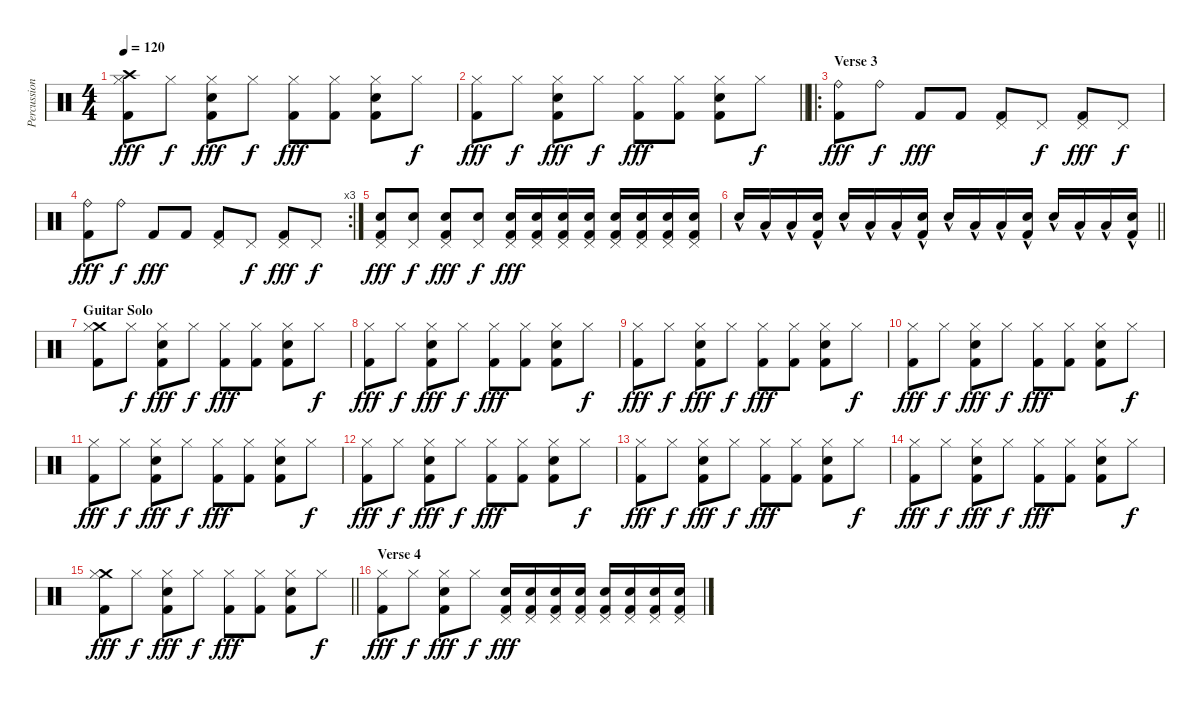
\track ("Percussion: Steve Walchoz" "Percussion") {instrument percussion}
\staff {score}
\articulation defaults
\ts (4 4)
\tempo 120
\clef neutral
\ks c
("Crash high (hit)" "Hi-Hat (closed)" "Kick (hit) 2").8{dy fff} "Hi-Hat (closed)".8{dy f} ("Hi-Hat (closed)" "Snare (hit) 2" "Kick (hit) 2").8{dy fff} "Hi-Hat (closed)".8{dy f} ("Hi-Hat (closed)" "Kick (hit) 2").8{dy fff} ("Hi-Hat (closed)" "Kick (hit) 2").8 ("Hi-Hat (closed)" "Snare (hit) 2" "Kick (hit) 2").8 "Hi-Hat (closed)".8{dy f} |
\barLineRight lightlight
("Hi-Hat (closed)" "Kick (hit) 2").8{dy fff} "Hi-Hat (closed)".8{dy f} ("Hi-Hat (closed)" "Snare (hit) 2" "Kick (hit) 2").8{dy fff} "Hi-Hat (closed)".8{dy f} ("Hi-Hat (closed)" "Kick (hit) 2").8{dy fff} ("Hi-Hat (closed)" "Kick (hit) 2").8 ("Hi-Hat (closed)" "Snare (hit) 2" "Kick (hit) 2").8 "Hi-Hat (closed)".8{dy f} |
\ro
\section ("" "Verse 3")
("Ride (bell)" "Kick (hit) 2").8{dy fff} "Ride (bell)".8{dy f} "Kick (hit) 2".8{dy fff} "Kick (hit) 2".8 ("Pedal Hi-Hat (hit)" "Kick (hit) 2").8 "Pedal Hi-Hat (hit)".8{dy f} ("Pedal Hi-Hat (hit)" "Kick (hit) 2").8{dy fff} "Pedal Hi-Hat (hit)".8{dy f} |
\rc 3
("Ride (bell)" "Kick (hit) 2").8{dy fff} "Ride (bell)".8{dy f} "Kick (hit) 2".8{dy fff} "Kick (hit) 2".8 ("Pedal Hi-Hat (hit)" "Kick (hit) 2").8 "Pedal Hi-Hat (hit)".8{dy f} ("Pedal Hi-Hat (hit)" "Kick (hit) 2").8{dy fff} "Pedal Hi-Hat (hit)".8{dy f} |
("Pedal Hi-Hat (hit)" "Snare (hit) 2" "Kick (hit) 2").8{dy fff} ("Pedal Hi-Hat (hit)" "Snare (hit) 2").8{dy f} ("Pedal Hi-Hat (hit)" "Snare (hit) 2" "Kick (hit) 2").8{dy fff} ("Pedal Hi-Hat (hit)" "Snare (hit) 2").8{dy f} ("Pedal Hi-Hat (hit)" "Snare (hit) 2" "Kick (hit) 2").16{dy fff} ("Pedal Hi-Hat (hit)" "Snare (hit) 2" "Kick (hit) 2").16 ("Pedal Hi-Hat (hit)" "Snare (hit) 2" "Kick (hit) 2").16 ("Pedal Hi-Hat (hit)" "Snare (hit) 2" "Kick (hit) 2").16 ("Pedal Hi-Hat (hit)" "Snare (hit) 2" "Kick (hit) 2").16 ("Pedal Hi-Hat (hit)" "Snare (hit) 2" "Kick (hit) 2").16 ("Pedal Hi-Hat (hit)" "Snare (hit) 2" "Kick (hit) 2").16 ("Pedal Hi-Hat (hit)" "Snare (hit) 2" "Kick (hit) 2").16 |
\barLineRight lightlight "Snare (hit) 2"{hac}.16 "Low Tom (hit)"{hac}.16 "Low Tom (hit)"{hac}.16
("Snare (hit) 2" "Kick (hit) 2"{hac}).16 "Snare (hit) 2"{hac}.16 "Low Tom (hit)"{hac}.16 "Low Tom (hit)"{hac}.16 ("Snare (hit) 2" "Kick (hit) 2"{hac}).16 "Snare (hit) 2"{hac}.16 "Low Tom (hit)"{hac}.16 "Low Tom (hit)"{hac}.16 ("Snare (hit) 2" "Kick (hit) 2"{hac}).16 "Snare (hit) 2"{hac}.16 "Low Tom (hit)"{hac}.16 "Low Tom (hit)"{hac}.16 ("Snare (hit) 2" "Kick (hit) 2"{hac}).16 |
\section ("" "Guitar Solo")
("Crash medium (hit)" "Hi-Hat (closed)" "Kick (hit) 2").8 "Hi-Hat (closed)".8{dy f} ("Hi-Hat (closed)" "Snare (hit) 2" "Kick (hit) 2").8{dy fff} "Hi-Hat (closed)".8{dy f} ("Hi-Hat (closed)" "Kick (hit) 2").8{dy fff} ("Hi-Hat (closed)" "Kick (hit) 2").8 ("Hi-Hat (closed)" "Snare (hit) 2" "Kick (hit) 2").8 "Hi-Hat (closed)".8{dy f} |
("Hi-Hat (closed)" "Kick (hit) 2").8{dy fff} "Hi-Hat (closed)".8{dy f} ("Hi-Hat (closed)" "Snare (hit) 2" "Kick (hit) 2").8{dy fff} "Hi-Hat (closed)".8{dy f} ("Hi-Hat (closed)" "Kick (hit) 2").8{dy fff} ("Hi-Hat (closed)" "Kick (hit) 2").8 ("Hi-Hat (closed)" "Snare (hit) 2" "Kick (hit) 2").8 "Hi-Hat (closed)".8{dy f} |
("Hi-Hat (closed)" "Kick (hit) 2").8{dy fff} "Hi-Hat (closed)".8{dy f} ("Hi-Hat (closed)" "Snare (hit) 2" "Kick (hit) 2").8{dy fff} "Hi-Hat (closed)".8{dy f} ("Hi-Hat (closed)" "Kick (hit) 2").8{dy fff} ("Hi-Hat (closed)" "Kick (hit) 2").8 ("Hi-Hat (closed)" "Snare (hit) 2" "Kick (hit) 2").8 "Hi-Hat (closed)".8{dy f} |
("Hi-Hat (closed)" "Kick (hit) 2").8{dy fff} "Hi-Hat (closed)".8{dy f} ("Hi-Hat (closed)" "Snare (hit) 2" "Kick (hit) 2").8{dy fff} "Hi-Hat (closed)".8{dy f} ("Hi-Hat (closed)" "Kick (hit) 2").8{dy fff} ("Hi-Hat (closed)" "Kick (hit) 2").8 ("Hi-Hat (closed)" "Snare (hit) 2" "Kick (hit) 2").8 "Hi-Hat (closed)".8{dy f} |
("Hi-Hat (closed)" "Kick (hit) 2").8{dy fff} "Hi-Hat (closed)".8{dy f} ("Hi-Hat (closed)" "Snare (hit) 2" "Kick (hit) 2").8{dy fff} "Hi-Hat (closed)".8{dy f} ("Hi-Hat (closed)" "Kick (hit) 2").8{dy fff} ("Hi-Hat (closed)" "Kick (hit) 2").8 ("Hi-Hat (closed)" "Snare (hit) 2" "Kick (hit) 2").8 "Hi-Hat (closed)".8{dy f} |
("Hi-Hat (closed)" "Kick (hit) 2").8{dy fff} "Hi-Hat (closed)".8{dy f} ("Hi-Hat (closed)" "Snare (hit) 2" "Kick (hit) 2").8{dy fff} "Hi-Hat (closed)".8{dy f} ("Hi-Hat (closed)" "Kick (hit) 2").8{dy fff} ("Hi-Hat (closed)" "Kick (hit) 2").8 ("Hi-Hat (closed)" "Snare (hit) 2" "Kick (hit) 2").8 "Hi-Hat (closed)".8{dy f} |
("Hi-Hat (closed)" "Kick (hit) 2").8{dy fff} "Hi-Hat (closed)".8{dy f} ("Hi-Hat (closed)" "Snare (hit) 2" "Kick (hit) 2").8{dy fff} "Hi-Hat (closed)".8{dy f} ("Hi-Hat (closed)" "Kick (hit) 2").8{dy fff} ("Hi-Hat (closed)" "Kick (hit) 2").8 ("Hi-Hat (closed)" "Snare (hit) 2" "Kick (hit) 2").8 "Hi-Hat (closed)".8{dy f} |
("Hi-Hat (closed)" "Kick (hit) 2").8{dy fff} "Hi-Hat (closed)".8{dy f} ("Hi-Hat (closed)" "Snare (hit) 2" "Kick (hit) 2").8{dy fff} "Hi-Hat (closed)".8{dy f} ("Hi-Hat (closed)" "Kick (hit) 2").8{dy fff} ("Hi-Hat (closed)" "Kick (hit) 2").8 ("Hi-Hat (closed)" "Snare (hit) 2" "Kick (hit) 2").8 "Hi-Hat (closed)".8{dy f} |
\barLineRight lightlight
("Crash medium (hit)" "Hi-Hat (closed)" "Kick (hit) 2").8{dy fff} "Hi-Hat (closed)".8{dy f} ("Hi-Hat (closed)" "Snare (hit) 2" "Kick (hit) 2").8{dy fff} "Hi-Hat (closed)".8{dy f} ("Hi-Hat (closed)" "Kick (hit) 2").8{dy fff} ("Hi-Hat (closed)" "Kick (hit) 2").8 ("Hi-Hat (closed)" "Snare (hit) 2" "Kick (hit) 2").8 "Hi-Hat (closed)".8{dy f} |
\section ("" "Verse 4")
("Hi-Hat (closed)" "Kick (hit) 2").8{dy fff} "Hi-Hat (closed)".8{dy f} ("Hi-Hat (closed)" "Snare (hit) 2" "Kick (hit) 2").8{dy fff} "Hi-Hat (closed)".8{dy f} ("Pedal Hi-Hat (hit)" "Snare (hit) 2" "Kick (hit) 2").16{dy fff} ("Pedal Hi-Hat (hit)" "Snare (hit) 2" "Kick (hit) 2").16 ("Pedal Hi-Hat (hit)" "Snare (hit) 2" "Kick (hit) 2").16 ("Pedal Hi-Hat (hit)" "Snare (hit) 2" "Kick (hit) 2").16 ("Pedal Hi-Hat (hit)" "Snare (hit) 2" "Kick (hit) 2").16 ("Pedal Hi-Hat (hit)" "Snare (hit) 2" "Kick (hit) 2").16 ("Pedal Hi-Hat (hit)" "Snare (hit) 2" "Kick (hit) 2").16 ("Pedal Hi-Hat (hit)" "Snare (hit) 2" "Kick (hit) 2").16
